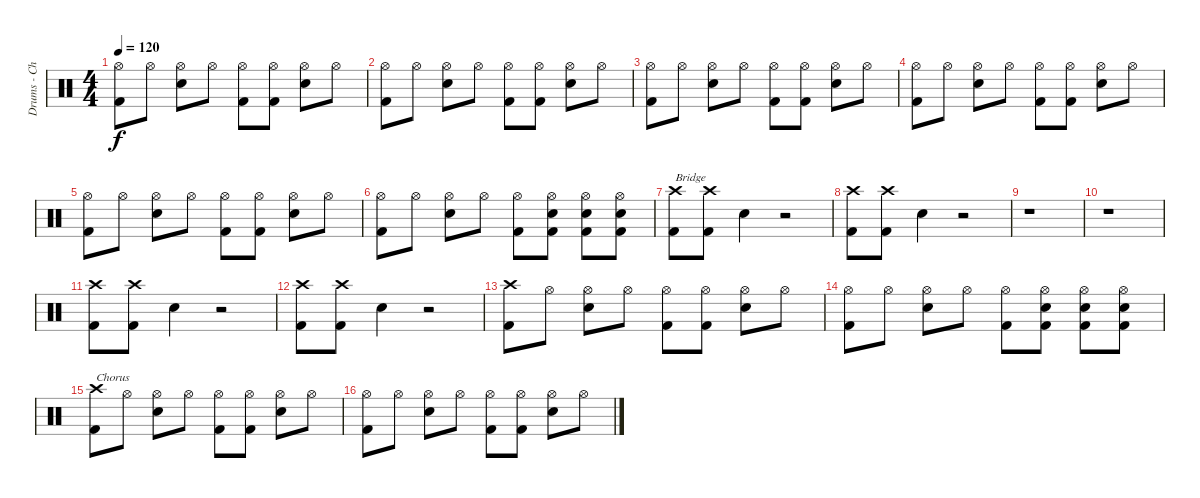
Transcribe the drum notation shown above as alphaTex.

\track ("Drums - Chris" "Drums - Ch") {instrument percussion}
\staff {score}
\articulation defaults
\ts (4 4)
\tempo 120
\clef neutral
\ks c
("Hi-Hat (open)" "Kick (hit) 2").8{dy f} "Hi-Hat (open)".8 ("Hi-Hat (open)" "Snare (hit) 2").8 "Hi-Hat (open)".8 ("Hi-Hat (open)" "Kick (hit) 2").8 ("Hi-Hat (open)" "Kick (hit) 2").8 ("Hi-Hat (open)" "Snare (hit) 2").8 "Hi-Hat (open)".8 |
("Hi-Hat (open)" "Kick (hit) 2").8 "Hi-Hat (open)".8 ("Hi-Hat (open)" "Snare (hit) 2").8 "Hi-Hat (open)".8 ("Hi-Hat (open)" "Kick (hit) 2").8 ("Hi-Hat (open)" "Kick (hit) 2").8 ("Hi-Hat (open)" "Snare (hit) 2").8 "Hi-Hat (open)".8 |
("Hi-Hat (open)" "Kick (hit) 2").8 "Hi-Hat (open)".8 ("Hi-Hat (open)" "Snare (hit) 2").8 "Hi-Hat (open)".8 ("Hi-Hat (open)" "Kick (hit) 2").8 ("Hi-Hat (open)" "Kick (hit) 2").8 ("Hi-Hat (open)" "Snare (hit) 2").8 "Hi-Hat (open)".8 |
("Hi-Hat (open)" "Kick (hit) 2").8 "Hi-Hat (open)".8 ("Hi-Hat (open)" "Snare (hit) 2").8 "Hi-Hat (open)".8 ("Hi-Hat (open)" "Kick (hit) 2").8 ("Hi-Hat (open)" "Kick (hit) 2").8 ("Hi-Hat (open)" "Snare (hit) 2").8 "Hi-Hat (open)".8 |
("Hi-Hat (open)" "Kick (hit) 2").8 "Hi-Hat (open)".8 ("Hi-Hat (open)" "Snare (hit) 2").8 "Hi-Hat (open)".8 ("Hi-Hat (open)" "Kick (hit) 2").8 ("Hi-Hat (open)" "Kick (hit) 2").8 ("Hi-Hat (open)" "Snare (hit) 2").8 "Hi-Hat (open)".8 |
("Hi-Hat (open)" "Kick (hit) 2").8 "Hi-Hat (open)".8 ("Hi-Hat (open)" "Snare (hit) 2").8 "Hi-Hat (open)".8 ("Hi-Hat (open)" "Kick (hit) 2").8 ("Hi-Hat (open)" "Snare (hit) 2" "Kick (hit) 2").8 ("Hi-Hat (open)" "Snare (hit) 2" "Kick (hit) 2").8 ("Hi-Hat (open)" "Snare (hit) 2" "Kick (hit) 2").8 |
("Crash high (hit)" "Kick (hit) 2").8{txt "Bridge"} ("Crash high (hit)" "Kick (hit) 2").8 "Snare (hit)"{x}.4 r.2 |
("Crash high (hit)" "Kick (hit) 2").8 ("Crash high (hit)" "Kick (hit) 2").8 "Snare (hit)"{x}.4 r.2 |
r.1 |
r.1 |
("Crash high (hit)" "Kick (hit) 2").8 ("Crash high (hit)" "Kick (hit) 2").8 "Snare (hit)"{x}.4 r.2 |
("Crash high (hit)" "Kick (hit) 2").8 ("Crash high (hit)" "Kick (hit) 2").8 "Snare (hit)"{x}.4 r.2 |
("Crash high (hit)" "Kick (hit) 2").8 "Hi-Hat (open)".8 ("Hi-Hat (open)" "Snare (hit) 2").8 "Hi-Hat (open)".8 ("Hi-Hat (open)" "Kick (hit) 2").8 ("Hi-Hat (open)" "Kick (hit) 2").8 ("Hi-Hat (open)" "Snare (hit) 2").8 "Hi-Hat (open)".8 |
("Hi-Hat (open)" "Kick (hit) 2").8 "Hi-Hat (open)".8 ("Hi-Hat (open)" "Snare (hit) 2").8 "Hi-Hat (open)".8 ("Hi-Hat (open)" "Kick (hit) 2").8 ("Hi-Hat (open)" "Snare (hit) 2" "Kick (hit) 2").8 ("Hi-Hat (open)" "Snare (hit) 2" "Kick (hit) 2").8 ("Hi-Hat (open)" "Snare (hit) 2" "Kick (hit) 2").8 |
("Crash high (hit)" "Kick (hit) 2").8{txt "Chorus"} "Hi-Hat (open)".8 ("Hi-Hat (open)" "Snare (hit) 2").8 "Hi-Hat (open)".8 ("Hi-Hat (open)" "Kick (hit) 2").8 ("Hi-Hat (open)" "Kick (hit) 2").8 ("Hi-Hat (open)" "Snare (hit) 2").8 "Hi-Hat (open)".8 |
("Hi-Hat (open)" "Kick (hit) 2").8 "Hi-Hat (open)".8 ("Hi-Hat (open)" "Snare (hit) 2").8 "Hi-Hat (open)".8 ("Hi-Hat (open)" "Kick (hit) 2").8 ("Hi-Hat (open)" "Kick (hit) 2").8 ("Hi-Hat (open)" "Snare (hit) 2").8 "Hi-Hat (open)".8
